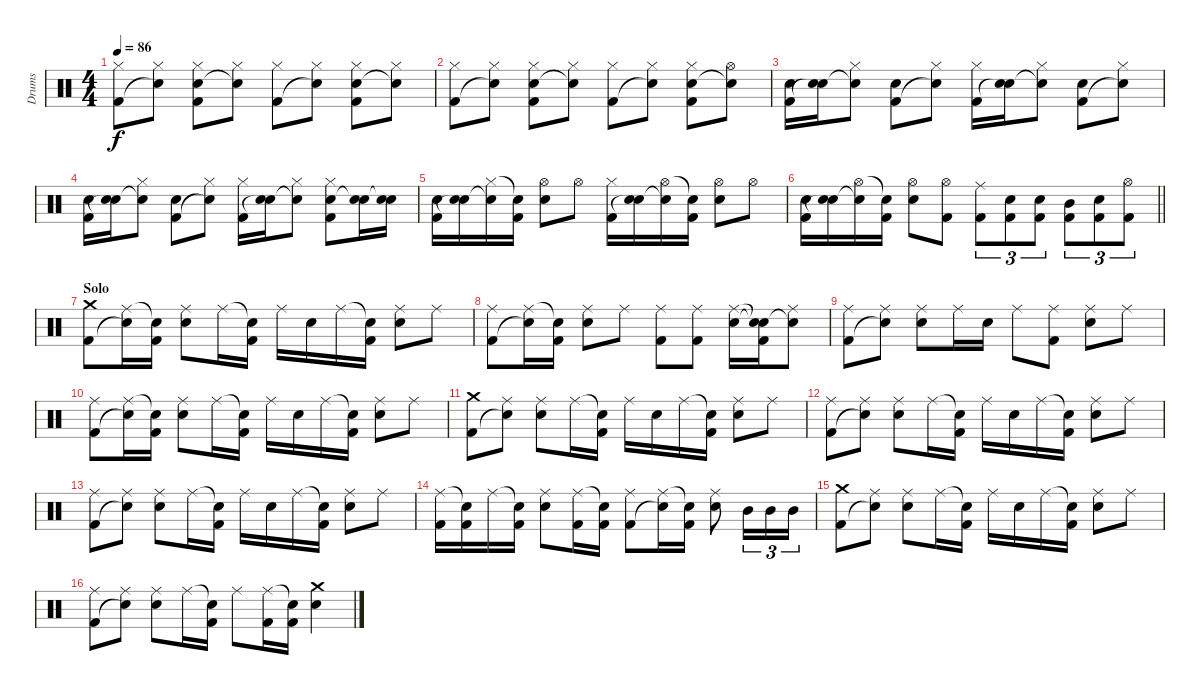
\track ("Drums" "Drums") {instrument percussion}
\staff {score}
\articulation defaults
\ts (4 4)
\tempo 86
\clef neutral
\ks aminor
("Hi-Hat (closed)" "Kick (hit) 2").8{dy f} ("Hi-Hat (closed)" "Snare (hit)"{t}).8 ("Hi-Hat (closed)" "Electric Snare (hit)" "Kick (hit) 2").8 ("Hi-Hat (closed)" "Snare (hit)"{t}).8 ("Hi-Hat (closed)" "Kick (hit) 2").8 ("Hi-Hat (closed)" "Snare (hit)"{t}).8 ("Hi-Hat (closed)" "Electric Snare (hit)" "Kick (hit) 2").8 ("Hi-Hat (closed)" "Snare (hit)"{t}).8 |
("Hi-Hat (closed)" "Kick (hit) 2").8 ("Hi-Hat (closed)" "Snare (hit)"{t}).8 ("Hi-Hat (closed)" "Electric Snare (hit)" "Kick (hit) 2").8 ("Hi-Hat (closed)" "Snare (hit)"{t}).8 ("Hi-Hat (closed)" "Kick (hit) 2").8 ("Hi-Hat (closed)" "Snare (hit)"{t}).8 ("Hi-Hat (closed)" "Electric Snare (hit)" "Kick (hit) 2").8 ("Hi-Hat (open)" "Snare (hit)"{t}).8 |
("Electric Snare (hit)" "Kick (hit) 2").16 ("Electric Snare (hit)" "Snare (hit)"{t}).16 ("Hi-Hat (closed)" "Snare (hit)"{t}).8 ("Electric Snare (hit)" "Kick (hit) 2").8 ("Hi-Hat (closed)" "Snare (hit)"{t}).8 ("Hi-Hat (closed)" "Kick (hit) 2").16 ("Electric Snare (hit)" "Snare (hit)"{t}).16 ("Hi-Hat (closed)" "Snare (hit)"{t}).8 ("Electric Snare (hit)" "Kick (hit) 2").8 ("Hi-Hat (closed)" "Snare (hit)"{t}).8 |
("Electric Snare (hit)" "Kick (hit) 2").16 ("Electric Snare (hit)" "Snare (hit)"{t}).16 ("Hi-Hat (closed)" "Snare (hit)"{t}).8 ("Electric Snare (hit)" "Kick (hit) 2").8 ("Hi-Hat (closed)" "Snare (hit)"{t}).8 ("Hi-Hat (closed)" "Kick (hit) 2").16 ("Electric Snare (hit)" "Snare (hit)"{t}).16 ("Hi-Hat (closed)" "Snare (hit)"{t}).8 ("Hi-Hat (closed)" "Electric Snare (hit)" "Kick (hit) 2").8 ("Electric Snare (hit)" "Snare (hit)"{t}).16 ("Electric Snare (hit)" "Snare (hit)"{t}).16 |
("Electric Snare (hit)" "Kick (hit) 2").16 ("Electric Snare (hit)" "Snare (hit)"{t}).16 ("Hi-Hat (closed)" "Snare (hit)"{t}).16 ("Snare (hit)"{t} "Kick (hit) 2").16 ("Hi-Hat (open)" "Electric Snare (hit)").8 "Hi-Hat (open)".8 ("Hi-Hat (closed)" "Kick (hit) 2").16 ("Electric Snare (hit)" "Snare (hit)"{t}).16 ("Hi-Hat (open)" "Snare (hit)"{t}).16 ("Snare (hit)"{t} "Kick (hit) 2").16 ("Hi-Hat (open)" "Electric Snare (hit)").8 "Hi-Hat (open)".8 |
\barLineRight lightlight
("Electric Snare (hit)" "Kick (hit) 2").16 ("Electric Snare (hit)" "Snare (hit)"{t}).16 ("Hi-Hat (open)" "Snare (hit)"{t}).16 ("Snare (hit)"{t} "Kick (hit) 2").16 ("Hi-Hat (open)" "Electric Snare (hit)").8 ("Hi-Hat (open)" "Kick (hit) 2").8 ("Ride (middle)" "Kick (hit) 2").8{tu (3 2)} ("Electric Snare (hit)" "Kick (hit) 2").8{tu (3 2)} ("Electric Snare (hit)" "Kick (hit) 2").8{tu (3 2)} ("Mid Tom (hit)" "Kick (hit) 2").8{tu (3 2)} ("Electric Snare (hit)" "Kick (hit) 2").8{tu (3 2)} ("Hi-Hat (open)" "Kick (hit) 2").8{tu (3 2)} |
\section ("" "Solo")
("Crash medium (hit)" "Kick (hit) 2").8 ("Ride (middle)" "Snare (hit)"{t}).16 ("Snare (hit)"{t} "Kick (hit) 2").16 ("Ride (middle)" "Electric Snare (hit)").8 "Ride (middle)".16 ("Snare (hit)"{t} "Kick (hit) 2").16 "Ride (middle)".16 "Electric Snare (hit)".16 "Ride (middle)".16 ("Snare (hit)"{t} "Kick (hit) 2").16 ("Ride (middle)" "Electric Snare (hit)").8 "Ride (middle)".8 |
("Ride (middle)" "Kick (hit) 2").8 ("Ride (middle)" "Snare (hit)"{t}).16 ("Snare (hit)"{t} "Kick (hit) 2").16 ("Ride (middle)" "Electric Snare (hit)").8 "Ride (middle)".8 ("Ride (middle)" "Kick (hit) 2").8 ("Ride (middle)" "Kick (hit) 2").8 ("Ride (middle)" "Electric Snare (hit)").16 ("Snare (hit)"{t} "Snare (hit)"{t} "Kick (hit) 2").16 ("Ride (middle)" "Snare (hit)"{t}).8 |
("Ride (middle)" "Kick (hit) 2").8 ("Ride (middle)" "Snare (hit)"{t}).8 ("Ride (middle)" "Electric Snare (hit)").8 "Ride (middle)".16 "Electric Snare (hit)".16 "Ride (middle)".8 ("Ride (middle)" "Kick (hit) 2").8 ("Ride (middle)" "Electric Snare (hit)").8 "Ride (middle)".8 |
("Ride (middle)" "Kick (hit) 2").8 ("Ride (middle)" "Snare (hit)"{t}).16 ("Snare (hit)"{t} "Kick (hit) 2").16 ("Ride (middle)" "Electric Snare (hit)").8 "Ride (middle)".16 ("Snare (hit)"{t} "Kick (hit) 2").16 "Ride (middle)".16 "Electric Snare (hit)".16 "Ride (middle)".16 ("Snare (hit)"{t} "Kick (hit) 2").16 ("Ride (middle)" "Electric Snare (hit)").8 "Ride (middle)".8 |
("Crash medium (hit)" "Kick (hit) 2").8 ("Ride (middle)" "Snare (hit)"{t}).8 ("Ride (middle)" "Electric Snare (hit)").8 "Ride (middle)".16 ("Snare (hit)"{t} "Kick (hit) 2").16 "Ride (middle)".16 "Electric Snare (hit)".16 "Ride (middle)".16 ("Snare (hit)"{t} "Kick (hit) 2").16 ("Ride (middle)" "Electric Snare (hit)").8 "Ride (middle)".8 |
("Ride (middle)" "Kick (hit) 2").8 ("Ride (middle)" "Snare (hit)"{t}).8 ("Ride (middle)" "Electric Snare (hit)").8 "Ride (middle)".16 ("Snare (hit)"{t} "Kick (hit) 2").16 "Ride (middle)".16 "Electric Snare (hit)".16 "Ride (middle)".16 ("Snare (hit)"{t} "Kick (hit) 2").16 ("Ride (middle)" "Electric Snare (hit)").8 "Ride (middle)".8 |
("Ride (middle)" "Kick (hit) 2").8 ("Ride (middle)" "Snare (hit)"{t}).8 ("Ride (middle)" "Electric Snare (hit)").8 "Ride (middle)".16 ("Snare (hit)"{t} "Kick (hit) 2").16 "Ride (middle)".16 "Electric Snare (hit)".16 "Ride (middle)".16 ("Snare (hit)"{t} "Kick (hit) 2").16 ("Ride (middle)" "Electric Snare (hit)").8 "Ride (middle)".8 |
("Ride (middle)" "Kick (hit) 2").16 ("Snare (hit)"{t} "Kick (hit) 2").16 "Ride (middle)".16 ("Snare (hit)"{t} "Kick (hit) 2").16 ("Ride (middle)" "Electric Snare (hit)").8 ("Ride (middle)" "Kick (hit) 2").16 ("Snare (hit)"{t} "Kick (hit) 2").16 ("Ride (middle)" "Kick (hit) 2").8 ("Ride (middle)" "Snare (hit)"{t}).16 ("Snare (hit)"{t} "Kick (hit) 2").16 ("Ride (middle)" "Electric Snare (hit)").8 "Mid Tom (hit)".16{tu (3 2)} "Mid Tom (hit)".16{tu (3 2)} "Mid Tom (hit)".16{tu (3 2)} |
("Crash medium (hit)" "Kick (hit) 2").8 ("Ride (middle)" "Snare (hit)"{t}).8 ("Ride (middle)" "Electric Snare (hit)").8 "Ride (middle)".16 ("Snare (hit)"{t} "Kick (hit) 2").16 "Ride (middle)".16 "Electric Snare (hit)".16 "Ride (middle)".16 ("Snare (hit)"{t} "Kick (hit) 2").16 ("Ride (middle)" "Electric Snare (hit)").8 "Ride (middle)".8 |
("Ride (middle)" "Kick (hit) 2").8 ("Ride (middle)" "Snare (hit)"{t}).8 ("Ride (middle)" "Electric Snare (hit)").8 "Ride (middle)".16 ("Snare (hit)"{t} "Kick (hit) 2").16 "Ride (middle)".8 ("Ride (middle)" "Kick (hit) 2").16 ("Snare (hit)"{t} "Kick (hit) 2").16 ("Crash medium (hit)" "Electric Snare (hit)").4
